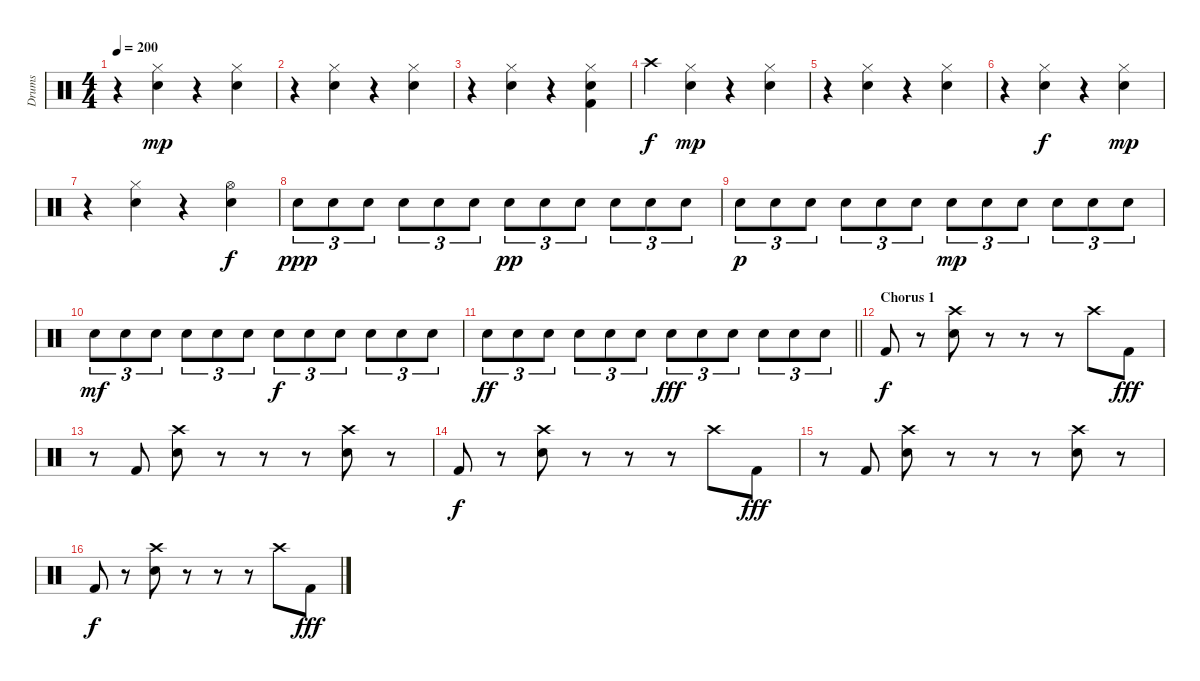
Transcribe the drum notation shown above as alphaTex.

\track ("Drums" "Drums") {instrument percussion}
\staff {score}
\articulation defaults
\ts (4 4)
\tempo 200
\clef neutral
\ks c
r.4{dy mp} ("Hi-Hat (closed)" "Snare (hit) 2").4 r.4 ("Hi-Hat (closed)" "Snare (hit) 2").4 |
r.4 ("Hi-Hat (closed)" "Snare (hit) 2").4 r.4 ("Hi-Hat (closed)" "Snare (hit) 2").4 |
r.4 ("Hi-Hat (closed)" "Snare (hit) 2").4 r.4 ("Hi-Hat (closed)" "Snare (hit) 2" "Kick (hit) 2").4 |
"Crash high (hit)".4{dy f} ("Hi-Hat (closed)" "Snare (hit) 2").4{dy mp} r.4 ("Hi-Hat (closed)" "Snare (hit) 2").4 |
r.4 ("Hi-Hat (closed)" "Snare (hit) 2").4 r.4 ("Hi-Hat (closed)" "Snare (hit) 2").4 |
r.4 ("Hi-Hat (closed)" "Snare (hit) 2").4{dy f} r.4 ("Hi-Hat (closed)" "Snare (hit) 2").4{dy mp} |
r.4 ("Hi-Hat (closed)" "Snare (hit) 2").4 r.4 ("Hi-Hat (open)" "Snare (hit) 2").4{dy f} |
"Snare (hit) 2".8{tu (3 2) dy ppp} "Snare (hit) 2".8{tu (3 2)} "Snare (hit) 2".8{tu (3 2)} "Snare (hit) 2".8{tu (3 2)} "Snare (hit) 2".8{tu (3 2)} "Snare (hit) 2".8{tu (3 2)} "Snare (hit) 2".8{tu (3 2) dy pp} "Snare (hit) 2".8{tu (3 2)} "Snare (hit) 2".8{tu (3 2)} "Snare (hit) 2".8{tu (3 2)} "Snare (hit) 2".8{tu (3 2)} "Snare (hit) 2".8{tu (3 2)} |
"Snare (hit) 2".8{tu (3 2) dy p} "Snare (hit) 2".8{tu (3 2)} "Snare (hit) 2".8{tu (3 2)} "Snare (hit) 2".8{tu (3 2)} "Snare (hit) 2".8{tu (3 2)} "Snare (hit) 2".8{tu (3 2)} "Snare (hit) 2".8{tu (3 2) dy mp} "Snare (hit) 2".8{tu (3 2)} "Snare (hit) 2".8{tu (3 2)} "Snare (hit) 2".8{tu (3 2)} "Snare (hit) 2".8{tu (3 2)} "Snare (hit) 2".8{tu (3 2)} |
"Snare (hit) 2".8{tu (3 2) dy mf} "Snare (hit) 2".8{tu (3 2)} "Snare (hit) 2".8{tu (3 2)} "Snare (hit) 2".8{tu (3 2)} "Snare (hit) 2".8{tu (3 2)} "Snare (hit) 2".8{tu (3 2)} "Snare (hit) 2".8{tu (3 2) dy f} "Snare (hit) 2".8{tu (3 2)} "Snare (hit) 2".8{tu (3 2)} "Snare (hit) 2".8{tu (3 2)} "Snare (hit) 2".8{tu (3 2)} "Snare (hit) 2".8{tu (3 2)} |
\barLineRight lightlight "Snare (hit) 2".8{tu (3 2) dy ff} "Snare (hit) 2".8{tu (3 2)} "Snare (hit) 2".8{tu (3 2)} "Snare (hit) 2".8{tu (3 2)} "Snare (hit) 2".8{tu (3 2)} "Snare (hit) 2".8{tu (3 2)} "Snare (hit) 2".8{tu (3 2) dy fff} "Snare (hit) 2".8{tu (3 2)} "Snare (hit) 2".8{tu (3 2)} "Snare (hit) 2".8{tu (3 2)} "Snare (hit) 2".8{tu (3 2)} "Snare (hit) 2".8{tu (3 2)}
|
\section ("" "Chorus 1")
"Kick (hit) 2".8{dy f} r.8 ("Crash high (hit)" "Snare (hit) 2").8 r.8 r.8 r.8 "Crash high (hit)".8 "Kick (hit) 2".8{dy fff} |
r.8 "Kick (hit) 2".8 ("Crash high (hit)" "Snare (hit) 2").8 r.8 r.8 r.8 ("Crash high (hit)" "Snare (hit) 2").8 r.8 |
"Kick (hit) 2".8{dy f} r.8 ("Crash high (hit)" "Snare (hit) 2").8 r.8 r.8 r.8 "Crash high (hit)".8 "Kick (hit) 2".8{dy fff} |
r.8 "Kick (hit) 2".8 ("Crash high (hit)" "Snare (hit) 2").8 r.8 r.8 r.8 ("Crash high (hit)" "Snare (hit) 2").8 r.8 |
"Kick (hit) 2".8{dy f} r.8 ("Crash high (hit)" "Snare (hit) 2").8 r.8 r.8 r.8 "Crash high (hit)".8 "Kick (hit) 2".8{dy fff}
